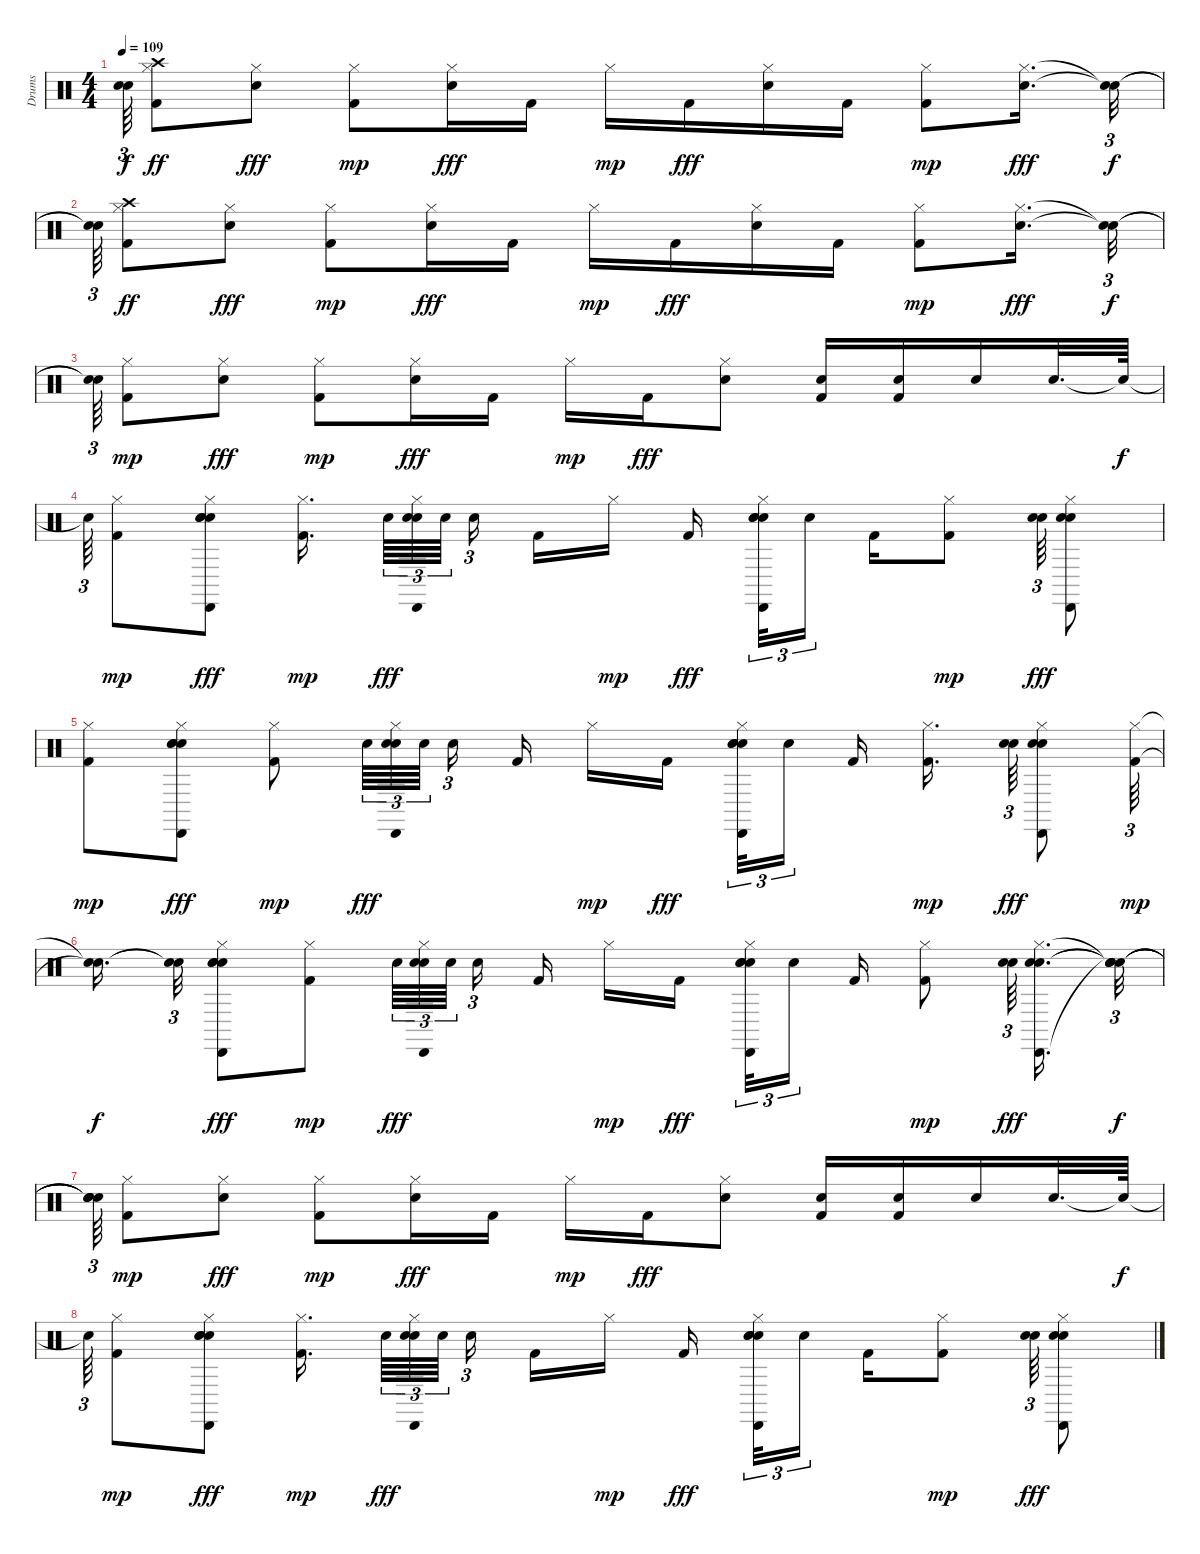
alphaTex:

\track ("Drums" "Drums") {instrument percussion}
\staff {score}
\articulation defaults
\ts (4 4)
\tempo 109
\clef neutral
\ks c
("Snare (hit)"{t} "Snare (hit)"{t}).64{tu (3 2) dy f} ("Kick (hit) 2" "Hi-Hat (closed)" "Crash high (hit)").8{dy ff} ("Snare (hit) 2" "Hi-Hat (closed)").8{dy fff} ("Kick (hit) 2" "Hi-Hat (closed)").8{dy mp} ("Snare (hit) 2" "Hi-Hat (closed)").16{dy fff} "Kick (hit) 2".16 "Hi-Hat (closed)".16{dy mp} "Kick (hit) 2".16{dy fff} ("Snare (hit) 2" "Hi-Hat (closed)").16 "Kick (hit) 2".16 ("Kick (hit) 2" "Hi-Hat (closed)").8{dy mp} ("Snare (hit) 2" "Hi-Hat (closed)").16{d dy fff} ("Snare (hit)"{t} "Snare (hit)"{t}).32{tu (3 2) dy f} |
("Snare (hit)"{t} "Snare (hit)"{t}).64{tu (3 2)} ("Kick (hit) 2" "Hi-Hat (closed)" "Crash high (hit)").8{dy ff} ("Snare (hit) 2" "Hi-Hat (closed)").8{dy fff} ("Kick (hit) 2" "Hi-Hat (closed)").8{dy mp} ("Snare (hit) 2" "Hi-Hat (closed)").16{dy fff} "Kick (hit) 2".16 "Hi-Hat (closed)".16{dy mp} "Kick (hit) 2".16{dy fff} ("Snare (hit) 2" "Hi-Hat (closed)").16 "Kick (hit) 2".16 ("Kick (hit) 2" "Hi-Hat (closed)").8{dy mp} ("Snare (hit) 2" "Hi-Hat (closed)").16{d dy fff} ("Snare (hit)"{t} "Snare (hit)"{t}).32{tu (3 2) dy f} |
("Snare (hit)"{t} "Snare (hit)"{t}).64{tu (3 2)} ("Kick (hit) 2" "Hi-Hat (closed)").8{dy mp} ("Snare (hit) 2" "Hi-Hat (closed)").8{dy fff} ("Kick (hit) 2" "Hi-Hat (closed)").8{dy mp} ("Snare (hit) 2" "Hi-Hat (closed)").16{dy fff} "Kick (hit) 2".16 "Hi-Hat (closed)".16{dy mp} "Kick (hit) 2".16{dy fff} ("Snare (hit) 2" "Hi-Hat (closed)").8 ("Snare (hit) 2" "Kick (hit) 2").16 ("Snare (hit) 2" "Kick (hit) 2").16 "Snare (hit) 2".16 "Snare (hit) 2".32{d} "Snare (hit)"{t}.64{dy f} |
"Snare (hit)"{t}.64{tu (3 2)} ("Kick (hit) 2" "Hi-Hat (closed)").8{dy mp} ("Cabasa (hit)" "Snare (hit) 2" "Hi-Hat (closed)" "Hand Clap (hit)" "Hand Clap (hit)").8{dy fff} ("Kick (hit) 2" "Hi-Hat (closed)").16{d dy mp beam splitsecondary} "Hand Clap (hit)".64{tu (3 2) dy fff} ("Cabasa (hit)" "Snare (hit) 2" "Hi-Hat (closed)" "Hand Clap (hit)").64{tu (3 2)} "Hand Clap (hit)".64{tu (3 2) beam splitsecondary} "Hand Clap (hit)".16{tu (3 2) beam splitsecondary} "Kick (hit) 2".16 "Hi-Hat (closed)".16{dy mp} "Kick (hit) 2".16{dy fff beam splitsecondary} ("Cabasa (hit)" "Snare (hit) 2" "Hi-Hat (closed)" "Hand Clap (hit)" "Hand Clap (hit)").32{tu (3 2)} "Hand Clap (hit)".16{tu (3 2) beam splitsecondary} "Kick (hit) 2".16 ("Kick (hit) 2" "Hi-Hat (closed)").8{dy mp} ("Hand Clap (hit)" "Hand Clap (hit)").64{tu (3 2) dy fff} ("Cabasa (hit)" "Snare (hit) 2" "Hi-Hat (closed)" "Hand Clap (hit)").8 |
("Kick (hit) 2" "Hi-Hat (closed)").8{dy mp} ("Cabasa (hit)" "Snare (hit) 2" "Hi-Hat (closed)" "Hand Clap (hit)" "Hand Clap (hit)").8{dy fff} ("Kick (hit) 2" "Hi-Hat (closed)").8{dy mp} "Hand Clap (hit)".64{tu (3 2) dy fff} ("Cabasa (hit)" "Snare (hit) 2" "Hi-Hat (closed)" "Hand Clap (hit)").64{tu (3 2)} "Hand Clap (hit)".64{tu (3 2) beam splitsecondary} "Hand Clap (hit)".16{tu (3 2)} "Kick (hit) 2".16 "Hi-Hat (closed)".16{dy mp} "Kick (hit) 2".16{dy fff beam splitsecondary} ("Cabasa (hit)" "Snare (hit) 2" "Hi-Hat (closed)" "Hand Clap (hit)" "Hand Clap (hit)").32{tu (3 2)} "Hand Clap (hit)".16{tu (3 2) beam splitsecondary} "Kick (hit) 2".16 ("Kick (hit) 2" "Hi-Hat (closed)").16{d dy mp beam splitsecondary} ("Hand Clap (hit)" "Hand Clap (hit)").64{tu (3 2) dy fff} ("Cabasa (hit)" "Snare (hit) 2" "Hi-Hat (closed)" "Hand Clap (hit)").8 ("Kick (hit) 2" "Hi-Hat (closed)").64{tu (3 2) dy mp} |
("Snare (hit)"{t} "Snare (hit)"{t}).16{d dy f beam splitsecondary} ("Snare (hit)"{t} "Snare (hit)"{t}).32{tu (3 2)} ("Cabasa (hit)" "Snare (hit) 2" "Hi-Hat (closed)" "Hand Clap (hit)" "Hand Clap (hit)").8{dy fff} ("Kick (hit) 2" "Hi-Hat (closed)").8{dy mp} "Hand Clap (hit)".64{tu (3 2) dy fff} ("Cabasa (hit)" "Snare (hit) 2" "Hi-Hat (closed)" "Hand Clap (hit)").64{tu (3 2)} "Hand Clap (hit)".64{tu (3 2) beam splitsecondary} "Hand Clap (hit)".16{tu (3 2)} "Kick (hit) 2".16 "Hi-Hat (closed)".16{dy mp} "Kick (hit) 2".16{dy fff beam splitsecondary} ("Cabasa (hit)" "Snare (hit) 2" "Hi-Hat (closed)" "Hand Clap (hit)" "Hand Clap (hit)").32{tu (3 2)} "Hand Clap (hit)".16{tu (3 2) beam splitsecondary} "Kick (hit) 2".16 ("Kick (hit) 2" "Hi-Hat (closed)").8{dy mp} ("Hand Clap (hit)" "Hand Clap (hit)").64{tu (3 2) dy fff beam splitsecondary} ("Cabasa (hit)" "Snare (hit) 2" "Hi-Hat (closed)" "Hand Clap (hit)").16{d} ("Snare (hit)"{t} "Snare (hit)"{t} "Snare (hit)"{t} "Snare (hit)"{t}).32{tu (3 2) dy f} |
("Snare (hit)"{t} "Snare (hit)"{t} "Snare (hit)"{t} "Snare (hit)"{t}).64{tu (3 2)} ("Kick (hit) 2" "Hi-Hat (closed)").8{dy mp} ("Snare (hit) 2" "Hi-Hat (closed)").8{dy fff} ("Kick (hit) 2" "Hi-Hat (closed)").8{dy mp} ("Snare (hit) 2" "Hi-Hat (closed)").16{dy fff} "Kick (hit) 2".16 "Hi-Hat (closed)".16{dy mp} "Kick (hit) 2".16{dy fff} ("Snare (hit) 2" "Hi-Hat (closed)").8 ("Snare (hit) 2" "Kick (hit) 2").16 ("Snare (hit) 2" "Kick (hit) 2").16 "Snare (hit) 2".16 "Snare (hit) 2".32{d} "Snare (hit)"{t}.64{dy f} |
"Snare (hit)"{t}.64{tu (3 2)} ("Kick (hit) 2" "Hi-Hat (closed)").8{dy mp} ("Cabasa (hit)" "Snare (hit) 2" "Hi-Hat (closed)" "Hand Clap (hit)" "Hand Clap (hit)").8{dy fff} ("Kick (hit) 2" "Hi-Hat (closed)").16{d dy mp beam splitsecondary} "Hand Clap (hit)".64{tu (3 2) dy fff} ("Cabasa (hit)" "Snare (hit) 2" "Hi-Hat (closed)" "Hand Clap (hit)").64{tu (3 2)} "Hand Clap (hit)".64{tu (3 2) beam splitsecondary} "Hand Clap (hit)".16{tu (3 2) beam splitsecondary} "Kick (hit) 2".16 "Hi-Hat (closed)".16{dy mp} "Kick (hit) 2".16{dy fff beam splitsecondary} ("Cabasa (hit)" "Snare (hit) 2" "Hi-Hat (closed)" "Hand Clap (hit)" "Hand Clap (hit)").32{tu (3 2)} "Hand Clap (hit)".16{tu (3 2) beam splitsecondary} "Kick (hit) 2".16 ("Kick (hit) 2" "Hi-Hat (closed)").8{dy mp} ("Hand Clap (hit)" "Hand Clap (hit)").64{tu (3 2) dy fff} ("Cabasa (hit)" "Snare (hit) 2" "Hi-Hat (closed)" "Hand Clap (hit)").8
